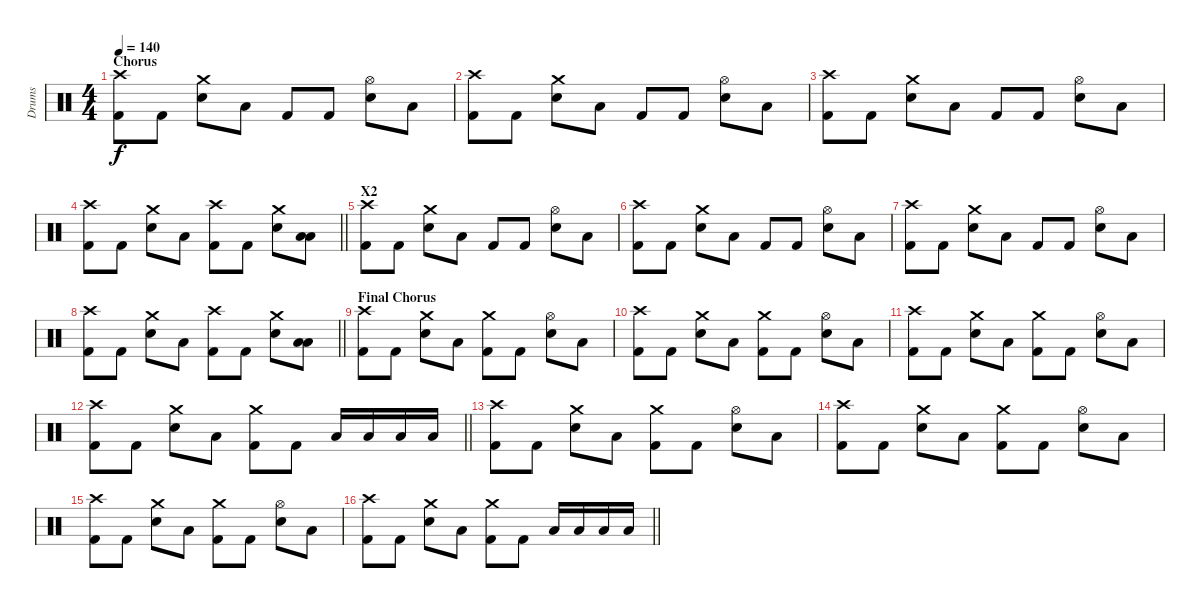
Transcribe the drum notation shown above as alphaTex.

\track ("Drums" "Drums") {instrument percussion}
\staff
\articulation defaults
\ts (4 4)
\section ("" "Chorus")
\tempo 140
\clef neutral
\ks c
("Crash high (hit)" "Kick (hit) 2").8{dy f} "Kick (hit) 2".8 ("Snare (hit) 2" "Crash medium (hit)").8 "Low Floor Tom (hit)".8 "Kick (hit) 2".8 "Kick (hit) 2".8 ("Snare (hit) 2" "Hi-Hat (open)").8 "Low Floor Tom (hit)".8 |
("Crash high (hit)" "Kick (hit) 2").8 "Kick (hit) 2".8 ("Snare (hit) 2" "Crash medium (hit)").8 "Low Floor Tom (hit)".8 "Kick (hit) 2".8 "Kick (hit) 2".8 ("Snare (hit) 2" "Hi-Hat (open)").8 "Low Floor Tom (hit)".8 |
("Crash high (hit)" "Kick (hit) 2").8 "Kick (hit) 2".8 ("Snare (hit) 2" "Crash medium (hit)").8 "Low Floor Tom (hit)".8 "Kick (hit) 2".8 "Kick (hit) 2".8 ("Snare (hit) 2" "Hi-Hat (open)").8 "Low Floor Tom (hit)".8 |
\barLineRight lightlight
("Crash high (hit)" "Kick (hit) 2").8 "Kick (hit) 2".8 ("Snare (hit) 2" "Crash medium (hit)").8 "Low Floor Tom (hit)".8 ("Crash high (hit)" "Kick (hit) 2").8 "Kick (hit) 2".8 ("Snare (hit) 2" "Crash medium (hit)").8 ("Low Tom (hit)" "Low Floor Tom (hit)").8 |
\section ("" "X2")
("Crash high (hit)" "Kick (hit) 2").8 "Kick (hit) 2".8 ("Snare (hit) 2" "Crash medium (hit)").8 "Low Floor Tom (hit)".8 "Kick (hit) 2".8 "Kick (hit) 2".8 ("Snare (hit) 2" "Hi-Hat (open)").8 "Low Floor Tom (hit)".8 |
("Crash high (hit)" "Kick (hit) 2").8 "Kick (hit) 2".8 ("Snare (hit) 2" "Crash medium (hit)").8 "Low Floor Tom (hit)".8 "Kick (hit) 2".8 "Kick (hit) 2".8 ("Snare (hit) 2" "Hi-Hat (open)").8 "Low Floor Tom (hit)".8 |
("Crash high (hit)" "Kick (hit) 2").8 "Kick (hit) 2".8 ("Snare (hit) 2" "Crash medium (hit)").8 "Low Floor Tom (hit)".8 "Kick (hit) 2".8 "Kick (hit) 2".8 ("Snare (hit) 2" "Hi-Hat (open)").8 "Low Floor Tom (hit)".8 |
\barLineRight lightlight
("Crash high (hit)" "Kick (hit) 2").8 "Kick (hit) 2".8 ("Snare (hit) 2" "Crash medium (hit)").8 "Low Floor Tom (hit)".8 ("Crash high (hit)" "Kick (hit) 2").8 "Kick (hit) 2".8 ("Snare (hit) 2" "Crash medium (hit)").8 ("Low Tom (hit)" "Low Floor Tom (hit)").8 |
\section ("" "Final Chorus")
("Crash high (hit)" "Kick (hit) 2").8 "Kick (hit) 2".8 ("Snare (hit) 2" "Crash medium (hit)").8 "Low Floor Tom (hit)".8 ("Crash medium (hit)" "Kick (hit) 2").8 "Kick (hit) 2".8 ("Snare (hit) 2" "Hi-Hat (open)").8 "Low Floor Tom (hit)".8 |
("Crash high (hit)" "Kick (hit) 2").8 "Kick (hit) 2".8 ("Snare (hit) 2" "Crash medium (hit)").8 "Low Floor Tom (hit)".8 ("Crash medium (hit)" "Kick (hit) 2").8 "Kick (hit) 2".8 ("Snare (hit) 2" "Hi-Hat (open)").8 "Low Floor Tom (hit)".8 |
("Crash high (hit)" "Kick (hit) 2").8 "Kick (hit) 2".8 ("Snare (hit) 2" "Crash medium (hit)").8 "Low Floor Tom (hit)".8 ("Crash medium (hit)" "Kick (hit) 2").8 "Kick (hit) 2".8 ("Snare (hit) 2" "Hi-Hat (open)").8 "Low Floor Tom (hit)".8 |
\barLineRight lightlight
("Crash high (hit)" "Kick (hit) 2").8 "Kick (hit) 2".8 ("Snare (hit) 2" "Crash medium (hit)").8 "Low Floor Tom (hit)".8 ("Crash medium (hit)" "Kick (hit) 2").8 "Kick (hit) 2".8 "Low Tom (hit)".16 "Low Tom (hit)".16 "Low Floor Tom (hit)".16 "Low Floor Tom (hit)".16 |
("Crash high (hit)" "Kick (hit) 2").8 "Kick (hit) 2".8 ("Snare (hit) 2" "Crash medium (hit)").8 "Low Floor Tom (hit)".8 ("Crash medium (hit)" "Kick (hit) 2").8 "Kick (hit) 2".8 ("Snare (hit) 2" "Hi-Hat (open)").8 "Low Floor Tom (hit)".8 |
("Crash high (hit)" "Kick (hit) 2").8 "Kick (hit) 2".8 ("Snare (hit) 2" "Crash medium (hit)").8 "Low Floor Tom (hit)".8 ("Crash medium (hit)" "Kick (hit) 2").8 "Kick (hit) 2".8 ("Snare (hit) 2" "Hi-Hat (open)").8 "Low Floor Tom (hit)".8 |
("Crash high (hit)" "Kick (hit) 2").8 "Kick (hit) 2".8 ("Snare (hit) 2" "Crash medium (hit)").8 "Low Floor Tom (hit)".8 ("Crash medium (hit)" "Kick (hit) 2").8 "Kick (hit) 2".8 ("Snare (hit) 2" "Hi-Hat (open)").8 "Low Floor Tom (hit)".8 |
\barLineRight lightlight
("Crash high (hit)" "Kick (hit) 2").8 "Kick (hit) 2".8 ("Snare (hit) 2" "Crash medium (hit)").8 "Low Floor Tom (hit)".8 ("Crash medium (hit)" "Kick (hit) 2").8 "Kick (hit) 2".8 "Low Tom (hit)".16 "Low Tom (hit)".16 "Low Floor Tom (hit)".16 "Low Floor Tom (hit)".16
